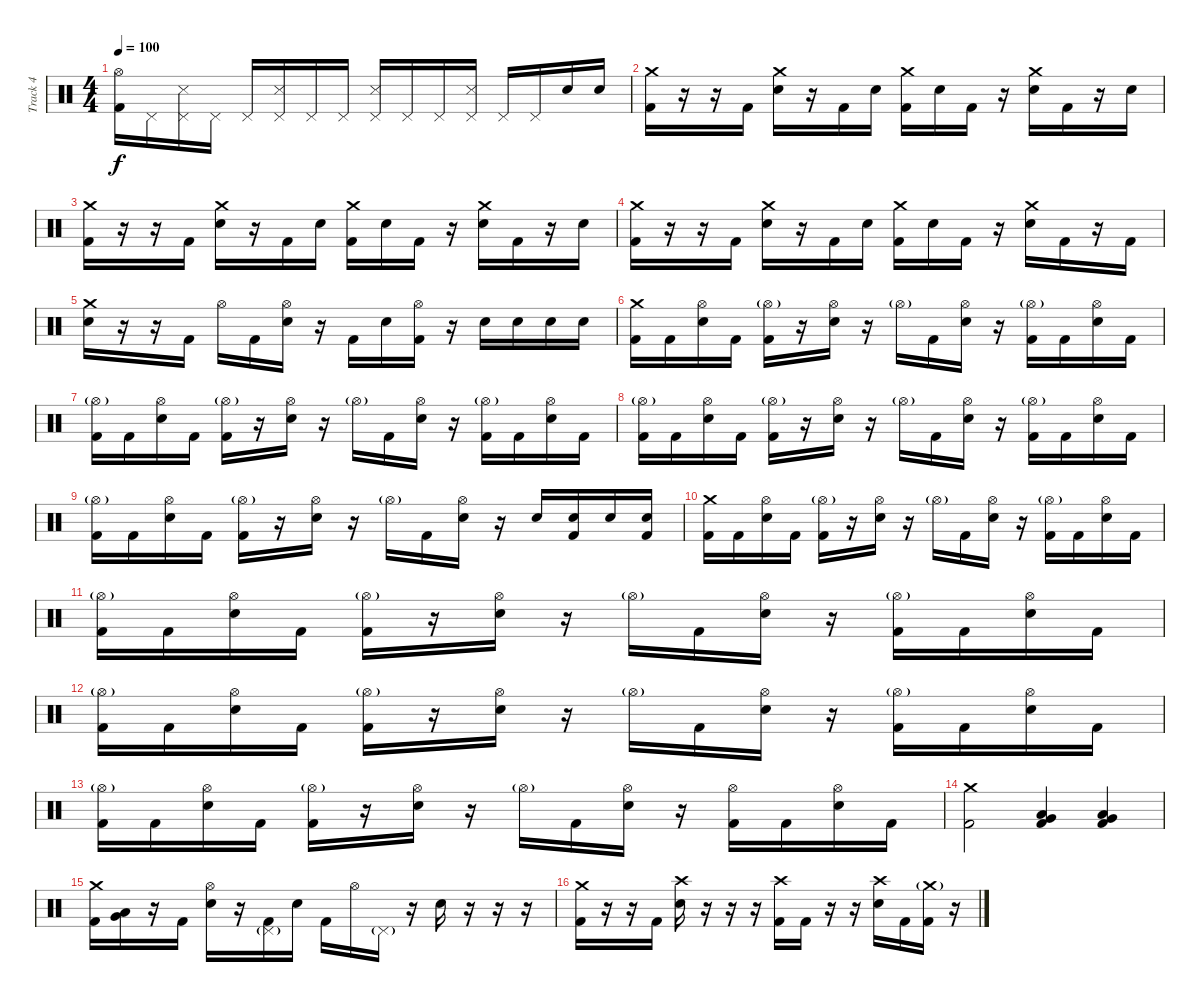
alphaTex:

\track ("Track 4" "Track 4") {instrument percussion}
\staff {score}
\articulation defaults
\ts (4 4)
\tempo 100
\clef neutral
\ks c
("Hi-Hat (open)" "Kick (hit) 2").16{dy f} "Pedal Hi-Hat (hit)".16 ("Pedal Hi-Hat (hit)" "Metronome (hit)").16 "Pedal Hi-Hat (hit)".16 "Pedal Hi-Hat (hit)".16 ("Pedal Hi-Hat (hit)" "Metronome (hit)").16 "Pedal Hi-Hat (hit)".16 "Pedal Hi-Hat (hit)".16 ("Pedal Hi-Hat (hit)" "Metronome (hit)").16 "Pedal Hi-Hat (hit)".16 "Pedal Hi-Hat (hit)".16 ("Pedal Hi-Hat (hit)" "Metronome (hit)").16 "Pedal Hi-Hat (hit)".16 "Pedal Hi-Hat (hit)".16 "Electric Snare (hit)".16 "Electric Snare (hit)".16 |
("Crash medium (hit)" "Kick (hit) 2").16 r.16 r.16 "Kick (hit) 2".16 ("Crash medium (hit)" "Electric Snare (hit)").16 r.16 "Kick (hit) 2".16 "Electric Snare (hit)".16 ("Crash medium (hit)" "Kick (hit) 2").16 "Electric Snare (hit)".16 "Kick (hit) 2".16 r.16 ("Crash medium (hit)" "Electric Snare (hit)").16 "Kick (hit) 2".16 r.16 "Electric Snare (hit)".16 |
("Crash medium (hit)" "Kick (hit) 2").16 r.16 r.16 "Kick (hit) 2".16 ("Crash medium (hit)" "Electric Snare (hit)").16 r.16 "Kick (hit) 2".16 "Electric Snare (hit)".16 ("Crash medium (hit)" "Kick (hit) 2").16 "Electric Snare (hit)".16 "Kick (hit) 2".16 r.16 ("Crash medium (hit)" "Electric Snare (hit)").16 "Kick (hit) 2".16 r.16 "Electric Snare (hit)".16 |
("Crash medium (hit)" "Kick (hit) 2").16 r.16 r.16 "Kick (hit) 2".16 ("Crash medium (hit)" "Electric Snare (hit)").16 r.16 "Kick (hit) 2".16 "Electric Snare (hit)".16 ("Crash medium (hit)" "Kick (hit) 2").16 "Electric Snare (hit)".16 "Kick (hit) 2".16 r.16 ("Crash medium (hit)" "Electric Snare (hit)").16 "Kick (hit) 2".16 r.16 "Kick (hit) 2".16 |
("Crash medium (hit)" "Electric Snare (hit)").16 r.16 r.16 "Kick (hit) 2".16 "Hi-Hat (open)".16 "Kick (hit) 2".16 ("Hi-Hat (open)" "Electric Snare (hit)").16 r.16 "Kick (hit) 2".16 "Electric Snare (hit)".16 ("Hi-Hat (open)" "Kick (hit) 2").16 r.16 "Electric Snare (hit)".16 "Electric Snare (hit)".16 "Electric Snare (hit)".16 "Electric Snare (hit)".16 |
("Crash medium (hit)" "Kick (hit) 2").16 "Kick (hit) 2".16 ("Hi-Hat (open)" "Electric Snare (hit)").16 "Kick (hit) 2".16 ("Hi-Hat (open)"{g} "Kick (hit) 2").16 r.16 ("Hi-Hat (open)" "Electric Snare (hit)").16 r.16 "Hi-Hat (open)"{g}.16 "Kick (hit) 2".16 ("Hi-Hat (open)" "Electric Snare (hit)").16 r.16 ("Hi-Hat (open)"{g} "Kick (hit) 2").16 "Kick (hit) 2".16 ("Hi-Hat (open)" "Electric Snare (hit)").16 "Kick (hit) 2".16 |
("Hi-Hat (open)"{g} "Kick (hit) 2").16 "Kick (hit) 2".16 ("Hi-Hat (open)" "Electric Snare (hit)").16 "Kick (hit) 2".16 ("Hi-Hat (open)"{g} "Kick (hit) 2").16 r.16 ("Hi-Hat (open)" "Electric Snare (hit)").16 r.16 "Hi-Hat (open)"{g}.16 "Kick (hit) 2".16 ("Hi-Hat (open)" "Electric Snare (hit)").16 r.16 ("Hi-Hat (open)"{g} "Kick (hit) 2").16 "Kick (hit) 2".16 ("Hi-Hat (open)" "Electric Snare (hit)").16 "Kick (hit) 2".16 |
("Hi-Hat (open)"{g} "Kick (hit) 2").16 "Kick (hit) 2".16 ("Hi-Hat (open)" "Electric Snare (hit)").16 "Kick (hit) 2".16 ("Hi-Hat (open)"{g} "Kick (hit) 2").16 r.16 ("Hi-Hat (open)" "Electric Snare (hit)").16 r.16 "Hi-Hat (open)"{g}.16 "Kick (hit) 2".16 ("Hi-Hat (open)" "Electric Snare (hit)").16 r.16 ("Hi-Hat (open)"{g} "Kick (hit) 2").16 "Kick (hit) 2".16 ("Hi-Hat (open)" "Electric Snare (hit)").16 "Kick (hit) 2".16 |
("Hi-Hat (open)"{g} "Kick (hit) 2").16 "Kick (hit) 2".16 ("Hi-Hat (open)" "Electric Snare (hit)").16 "Kick (hit) 2".16 ("Hi-Hat (open)"{g} "Kick (hit) 2").16 r.16 ("Hi-Hat (open)" "Electric Snare (hit)").16 r.16 "Hi-Hat (open)"{g}.16 "Kick (hit) 2".16 ("Hi-Hat (open)" "Electric Snare (hit)").16 r.16 "Electric Snare (hit)".16 ("Electric Snare (hit)" "Kick (hit) 2").16 "Electric Snare (hit)".16 ("Electric Snare (hit)" "Kick (hit) 2").16 |
("Crash medium (hit)" "Kick (hit) 2").16 "Kick (hit) 2".16 ("Hi-Hat (open)" "Electric Snare (hit)").16 "Kick (hit) 2".16 ("Hi-Hat (open)"{g} "Kick (hit) 2").16 r.16 ("Hi-Hat (open)" "Electric Snare (hit)").16 r.16 "Hi-Hat (open)"{g}.16 "Kick (hit) 2".16 ("Hi-Hat (open)" "Electric Snare (hit)").16 r.16 ("Hi-Hat (open)"{g} "Kick (hit) 2").16 "Kick (hit) 2".16 ("Hi-Hat (open)" "Electric Snare (hit)").16 "Kick (hit) 2".16 |
("Hi-Hat (open)"{g} "Kick (hit) 2").16 "Kick (hit) 2".16 ("Hi-Hat (open)" "Electric Snare (hit)").16 "Kick (hit) 2".16 ("Hi-Hat (open)"{g} "Kick (hit) 2").16 r.16 ("Hi-Hat (open)" "Electric Snare (hit)").16 r.16 "Hi-Hat (open)"{g}.16 "Kick (hit) 2".16 ("Hi-Hat (open)" "Electric Snare (hit)").16 r.16 ("Hi-Hat (open)"{g} "Kick (hit) 2").16 "Kick (hit) 2".16 ("Hi-Hat (open)" "Electric Snare (hit)").16 "Kick (hit) 2".16 |
("Hi-Hat (open)"{g} "Kick (hit) 2").16 "Kick (hit) 2".16 ("Hi-Hat (open)" "Electric Snare (hit)").16 "Kick (hit) 2".16 ("Hi-Hat (open)"{g} "Kick (hit) 2").16 r.16 ("Hi-Hat (open)" "Electric Snare (hit)").16 r.16 "Hi-Hat (open)"{g}.16 "Kick (hit) 2".16 ("Hi-Hat (open)" "Electric Snare (hit)").16 r.16 ("Hi-Hat (open)"{g} "Kick (hit) 2").16 "Kick (hit) 2".16 ("Hi-Hat (open)" "Electric Snare (hit)").16 "Kick (hit) 2".16 |
("Hi-Hat (open)"{g} "Kick (hit) 2").16 "Kick (hit) 2".16 ("Hi-Hat (open)" "Electric Snare (hit)").16 "Kick (hit) 2".16 ("Hi-Hat (open)"{g} "Kick (hit) 2").16 r.16 ("Hi-Hat (open)" "Electric Snare (hit)").16 r.16 "Hi-Hat (open)"{g}.16 "Kick (hit) 2".16 ("Hi-Hat (open)" "Electric Snare (hit)").16 r.16 ("Hi-Hat (open)" "Kick (hit) 2").16 "Kick (hit) 2".16 ("Hi-Hat (open)" "Electric Snare (hit)").16 "Kick (hit) 2".16 |
("Crash medium (hit)" "Kick (hit) 2").2 ("Very Low Tom (hit)" "Low Tom (hit)" "Kick (hit) 2").4 ("Low Floor Tom (hit)" "Very Low Tom (hit)" "Kick (hit) 2").4 |
("Crash medium (hit)" "Kick (hit) 2").16 ("Very Low Tom (hit)" "Low Tom (hit)").16 r.16 "Kick (hit) 2".16 ("Hi-Hat (open)" "Electric Snare (hit)").16 r.16 ("Pedal Hi-Hat (hit)"{g} "Kick (hit) 2").16 "Electric Snare (hit)".16 "Kick (hit) 2".16 "Hi-Hat (open)".16 "Pedal Hi-Hat (hit)"{g}.16 r.16 "Electric Snare (hit)".16 r.16 r.16 r.16 |
("Crash medium (hit)" "Kick (hit) 2").16 r.16 r.16 "Kick (hit) 2".16 ("Crash high (hit)" "Electric Snare (hit)").16 r.16 r.16 r.16 ("Crash high (hit)" "Kick (hit) 2").16 "Kick (hit) 2".16 r.16 r.16 ("Crash high (hit)" "Electric Snare (hit)").16 "Kick (hit) 2".16 ("Crash medium (hit)"{g} "Kick (hit) 2").16 r.16
